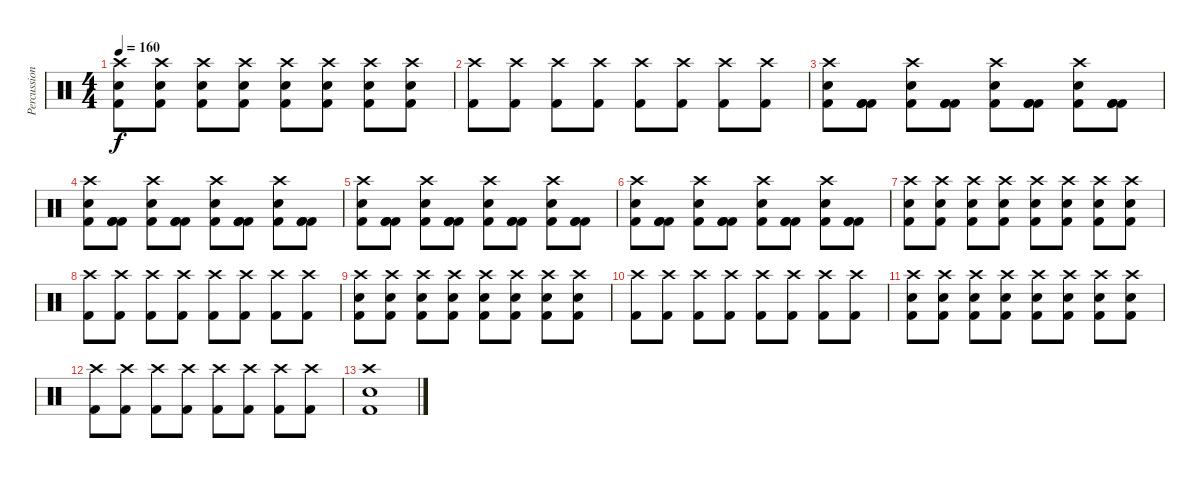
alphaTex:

\track ("Percussion" "Percussion") {instrument percussion}
\staff {score}
\articulation defaults
\ts (4 4)
\tempo 160
\clef neutral
\ks c
("Kick (hit) 2" "Electric Snare (hit)" "Crash high (hit)").8{dy f} ("Kick (hit) 2" "Electric Snare (hit)" "Crash high (hit)").8 ("Kick (hit) 2" "Electric Snare (hit)" "Crash high (hit)").8 ("Kick (hit) 2" "Electric Snare (hit)" "Crash high (hit)").8 ("Kick (hit) 2" "Electric Snare (hit)" "Crash high (hit)").8 ("Kick (hit) 2" "Electric Snare (hit)" "Crash high (hit)").8 ("Kick (hit) 2" "Electric Snare (hit)" "Crash high (hit)").8 ("Kick (hit) 2" "Electric Snare (hit)" "Crash high (hit)").8 |
("Kick (hit) 2" "Crash high (hit)").8 ("Kick (hit) 2" "Crash high (hit)").8 ("Kick (hit) 2" "Crash high (hit)").8 ("Kick (hit) 2" "Crash high (hit)").8 ("Kick (hit) 2" "Crash high (hit)").8 ("Kick (hit) 2" "Crash high (hit)").8 ("Kick (hit) 2" "Crash high (hit)").8 ("Kick (hit) 2" "Crash high (hit)").8 |
("Kick (hit) 2" "Electric Snare (hit)" "Crash high (hit)").8 ("Kick (hit) 2" "Kick (hit) 2" "Kick (hit) 2").8 ("Kick (hit) 2" "Electric Snare (hit)" "Crash high (hit)").8 ("Kick (hit) 2" "Kick (hit) 2" "Kick (hit) 2").8 ("Kick (hit) 2" "Electric Snare (hit)" "Crash high (hit)").8 ("Kick (hit) 2" "Kick (hit) 2" "Kick (hit) 2").8 ("Kick (hit) 2" "Electric Snare (hit)" "Crash high (hit)").8 ("Kick (hit) 2" "Kick (hit) 2" "Kick (hit) 2").8 |
("Kick (hit) 2" "Electric Snare (hit)" "Crash high (hit)").8 ("Kick (hit) 2" "Kick (hit) 2" "Kick (hit) 2").8 ("Kick (hit) 2" "Electric Snare (hit)" "Crash high (hit)").8 ("Kick (hit) 2" "Kick (hit) 2" "Kick (hit) 2").8 ("Kick (hit) 2" "Electric Snare (hit)" "Crash high (hit)").8 ("Kick (hit) 2" "Kick (hit) 2" "Kick (hit) 2").8 ("Kick (hit) 2" "Electric Snare (hit)" "Crash high (hit)").8 ("Kick (hit) 2" "Kick (hit) 2" "Kick (hit) 2").8 |
("Kick (hit) 2" "Electric Snare (hit)" "Crash high (hit)").8 ("Kick (hit) 2" "Kick (hit) 2" "Kick (hit) 2").8 ("Kick (hit) 2" "Electric Snare (hit)" "Crash high (hit)").8 ("Kick (hit) 2" "Kick (hit) 2" "Kick (hit) 2").8 ("Kick (hit) 2" "Electric Snare (hit)" "Crash high (hit)").8 ("Kick (hit) 2" "Kick (hit) 2" "Kick (hit) 2").8 ("Kick (hit) 2" "Electric Snare (hit)" "Crash high (hit)").8 ("Kick (hit) 2" "Kick (hit) 2" "Kick (hit) 2").8 |
("Kick (hit) 2" "Electric Snare (hit)" "Crash high (hit)").8 ("Kick (hit) 2" "Kick (hit) 2" "Kick (hit) 2").8 ("Kick (hit) 2" "Electric Snare (hit)" "Crash high (hit)").8 ("Kick (hit) 2" "Kick (hit) 2" "Kick (hit) 2").8 ("Kick (hit) 2" "Electric Snare (hit)" "Crash high (hit)").8 ("Kick (hit) 2" "Kick (hit) 2" "Kick (hit) 2").8 ("Kick (hit) 2" "Electric Snare (hit)" "Crash high (hit)").8 ("Kick (hit) 2" "Kick (hit) 2" "Kick (hit) 2").8 |
("Kick (hit) 2" "Electric Snare (hit)" "Crash high (hit)").8 ("Kick (hit) 2" "Electric Snare (hit)" "Crash high (hit)").8 ("Kick (hit) 2" "Electric Snare (hit)" "Crash high (hit)").8 ("Kick (hit) 2" "Electric Snare (hit)" "Crash high (hit)").8 ("Kick (hit) 2" "Electric Snare (hit)" "Crash high (hit)").8 ("Kick (hit) 2" "Electric Snare (hit)" "Crash high (hit)").8 ("Kick (hit) 2" "Electric Snare (hit)" "Crash high (hit)").8 ("Kick (hit) 2" "Electric Snare (hit)" "Crash high (hit)").8 |
("Kick (hit) 2" "Crash high (hit)").8 ("Kick (hit) 2" "Crash high (hit)").8 ("Kick (hit) 2" "Crash high (hit)").8 ("Kick (hit) 2" "Crash high (hit)").8 ("Kick (hit) 2" "Crash high (hit)").8 ("Kick (hit) 2" "Crash high (hit)").8 ("Kick (hit) 2" "Crash high (hit)").8 ("Kick (hit) 2" "Crash high (hit)").8 |
("Kick (hit) 2" "Electric Snare (hit)" "Crash high (hit)").8 ("Kick (hit) 2" "Electric Snare (hit)" "Crash high (hit)").8 ("Kick (hit) 2" "Electric Snare (hit)" "Crash high (hit)").8 ("Kick (hit) 2" "Electric Snare (hit)" "Crash high (hit)").8 ("Kick (hit) 2" "Electric Snare (hit)" "Crash high (hit)").8 ("Kick (hit) 2" "Electric Snare (hit)" "Crash high (hit)").8 ("Kick (hit) 2" "Electric Snare (hit)" "Crash high (hit)").8 ("Kick (hit) 2" "Electric Snare (hit)" "Crash high (hit)").8 |
("Kick (hit) 2" "Crash high (hit)").8 ("Kick (hit) 2" "Crash high (hit)").8 ("Kick (hit) 2" "Crash high (hit)").8 ("Kick (hit) 2" "Crash high (hit)").8 ("Kick (hit) 2" "Crash high (hit)").8 ("Kick (hit) 2" "Crash high (hit)").8 ("Kick (hit) 2" "Crash high (hit)").8 ("Kick (hit) 2" "Crash high (hit)").8 |
("Kick (hit) 2" "Electric Snare (hit)" "Crash high (hit)").8 ("Kick (hit) 2" "Electric Snare (hit)" "Crash high (hit)").8 ("Kick (hit) 2" "Electric Snare (hit)" "Crash high (hit)").8 ("Kick (hit) 2" "Electric Snare (hit)" "Crash high (hit)").8 ("Kick (hit) 2" "Electric Snare (hit)" "Crash high (hit)").8 ("Kick (hit) 2" "Electric Snare (hit)" "Crash high (hit)").8 ("Kick (hit) 2" "Electric Snare (hit)" "Crash high (hit)").8 ("Kick (hit) 2" "Electric Snare (hit)" "Crash high (hit)").8 |
("Kick (hit) 2" "Crash high (hit)").8 ("Kick (hit) 2" "Crash high (hit)").8 ("Kick (hit) 2" "Crash high (hit)").8 ("Kick (hit) 2" "Crash high (hit)").8 ("Kick (hit) 2" "Crash high (hit)").8 ("Kick (hit) 2" "Crash high (hit)").8 ("Kick (hit) 2" "Crash high (hit)").8 ("Kick (hit) 2" "Crash high (hit)").8 |
("Kick (hit) 2" "Electric Snare (hit)" "Crash high (hit)").1
